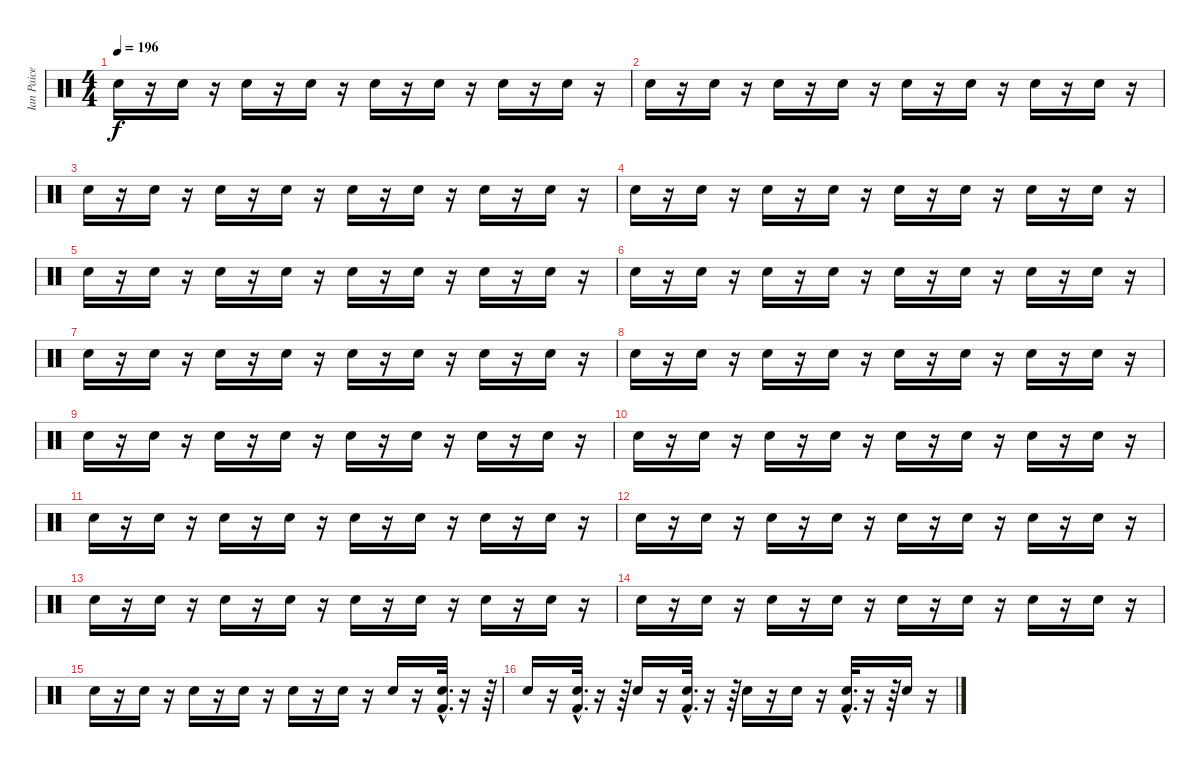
\track ("Ian Paice" "Ian Paice") {instrument percussion}
\staff {score}
\articulation defaults
\ts (4 4)
\tempo 196
\clef neutral
\ks c "Snare (hit) 2".16{dy f}
r.16 "Snare (hit) 2".16 r.16 "Snare (hit) 2".16 r.16 "Snare (hit) 2".16 r.16 "Snare (hit) 2".16 r.16 "Snare (hit) 2".16 r.16 "Snare (hit) 2".16 r.16 "Snare (hit) 2".16 r.16 |
"Snare (hit) 2".16 r.16 "Snare (hit) 2".16 r.16 "Snare (hit) 2".16 r.16 "Snare (hit) 2".16 r.16 "Snare (hit) 2".16 r.16 "Snare (hit) 2".16 r.16 "Snare (hit) 2".16 r.16 "Snare (hit) 2".16 r.16 |
"Snare (hit) 2".16 r.16 "Snare (hit) 2".16 r.16 "Snare (hit) 2".16 r.16 "Snare (hit) 2".16 r.16 "Snare (hit) 2".16 r.16 "Snare (hit) 2".16 r.16 "Snare (hit) 2".16 r.16 "Snare (hit) 2".16 r.16 |
"Snare (hit) 2".16 r.16 "Snare (hit) 2".16 r.16 "Snare (hit) 2".16 r.16 "Snare (hit) 2".16 r.16 "Snare (hit) 2".16 r.16 "Snare (hit) 2".16 r.16 "Snare (hit) 2".16 r.16 "Snare (hit) 2".16 r.16 |
"Snare (hit) 2".16 r.16 "Snare (hit) 2".16 r.16 "Snare (hit) 2".16 r.16 "Snare (hit) 2".16 r.16 "Snare (hit) 2".16 r.16 "Snare (hit) 2".16 r.16 "Snare (hit) 2".16 r.16 "Snare (hit) 2".16 r.16 |
"Snare (hit) 2".16 r.16 "Snare (hit) 2".16 r.16 "Snare (hit) 2".16 r.16 "Snare (hit) 2".16 r.16 "Snare (hit) 2".16 r.16 "Snare (hit) 2".16 r.16 "Snare (hit) 2".16 r.16 "Snare (hit) 2".16 r.16 |
"Snare (hit) 2".16 r.16 "Snare (hit) 2".16 r.16 "Snare (hit) 2".16 r.16 "Snare (hit) 2".16 r.16 "Snare (hit) 2".16 r.16 "Snare (hit) 2".16 r.16 "Snare (hit) 2".16 r.16 "Snare (hit) 2".16 r.16 |
"Snare (hit) 2".16 r.16 "Snare (hit) 2".16 r.16 "Snare (hit) 2".16 r.16 "Snare (hit) 2".16 r.16 "Snare (hit) 2".16 r.16 "Snare (hit) 2".16 r.16 "Snare (hit) 2".16 r.16 "Snare (hit) 2".16 r.16 |
"Snare (hit) 2".16 r.16 "Snare (hit) 2".16 r.16 "Snare (hit) 2".16 r.16 "Snare (hit) 2".16 r.16 "Snare (hit) 2".16 r.16 "Snare (hit) 2".16 r.16 "Snare (hit) 2".16 r.16 "Snare (hit) 2".16 r.16 |
"Snare (hit) 2".16 r.16 "Snare (hit) 2".16 r.16 "Snare (hit) 2".16 r.16 "Snare (hit) 2".16 r.16 "Snare (hit) 2".16 r.16 "Snare (hit) 2".16 r.16 "Snare (hit) 2".16 r.16 "Snare (hit) 2".16 r.16 |
"Snare (hit) 2".16 r.16 "Snare (hit) 2".16 r.16 "Snare (hit) 2".16 r.16 "Snare (hit) 2".16 r.16 "Snare (hit) 2".16 r.16 "Snare (hit) 2".16 r.16 "Snare (hit) 2".16 r.16 "Snare (hit) 2".16 r.16 |
"Snare (hit) 2".16 r.16 "Snare (hit) 2".16 r.16 "Snare (hit) 2".16 r.16 "Snare (hit) 2".16 r.16 "Snare (hit) 2".16 r.16 "Snare (hit) 2".16 r.16 "Snare (hit) 2".16 r.16 "Snare (hit) 2".16 r.16 |
"Snare (hit) 2".16 r.16 "Snare (hit) 2".16 r.16 "Snare (hit) 2".16 r.16 "Snare (hit) 2".16 r.16 "Snare (hit) 2".16 r.16 "Snare (hit) 2".16 r.16 "Snare (hit) 2".16 r.16 "Snare (hit) 2".16 r.16 |
"Snare (hit) 2".16 r.16 "Snare (hit) 2".16 r.16 "Snare (hit) 2".16 r.16 "Snare (hit) 2".16 r.16 "Snare (hit) 2".16 r.16 "Snare (hit) 2".16 r.16 "Snare (hit) 2".16 r.16 "Snare (hit) 2".16 r.16 |
"Snare (hit) 2".16 r.16 "Snare (hit) 2".16 r.16 "Snare (hit) 2".16 r.16 "Snare (hit) 2".16 r.16 "Snare (hit) 2".16 r.16 "Snare (hit) 2".16 r.16 "Snare (hit) 2".16 r.16 ("Snare (hit) 2"{hac} "Kick (hit) 2"{hac}).32{d} r.16 r.64 |
"Snare (hit) 2".16 r.16 ("Snare (hit) 2"{hac} "Kick (hit) 2"{hac}).32{d} r.16 r.64 "Snare (hit) 2".16 r.16 ("Snare (hit) 2"{hac} "Kick (hit) 2"{hac}).32{d} r.16 r.64 "Snare (hit) 2".16 r.16 "Snare (hit) 2".16 r.16 ("Snare (hit) 2"{hac} "Kick (hit) 2"{hac}).32{d} r.16 r.64 "Snare (hit) 2".16 r.16
